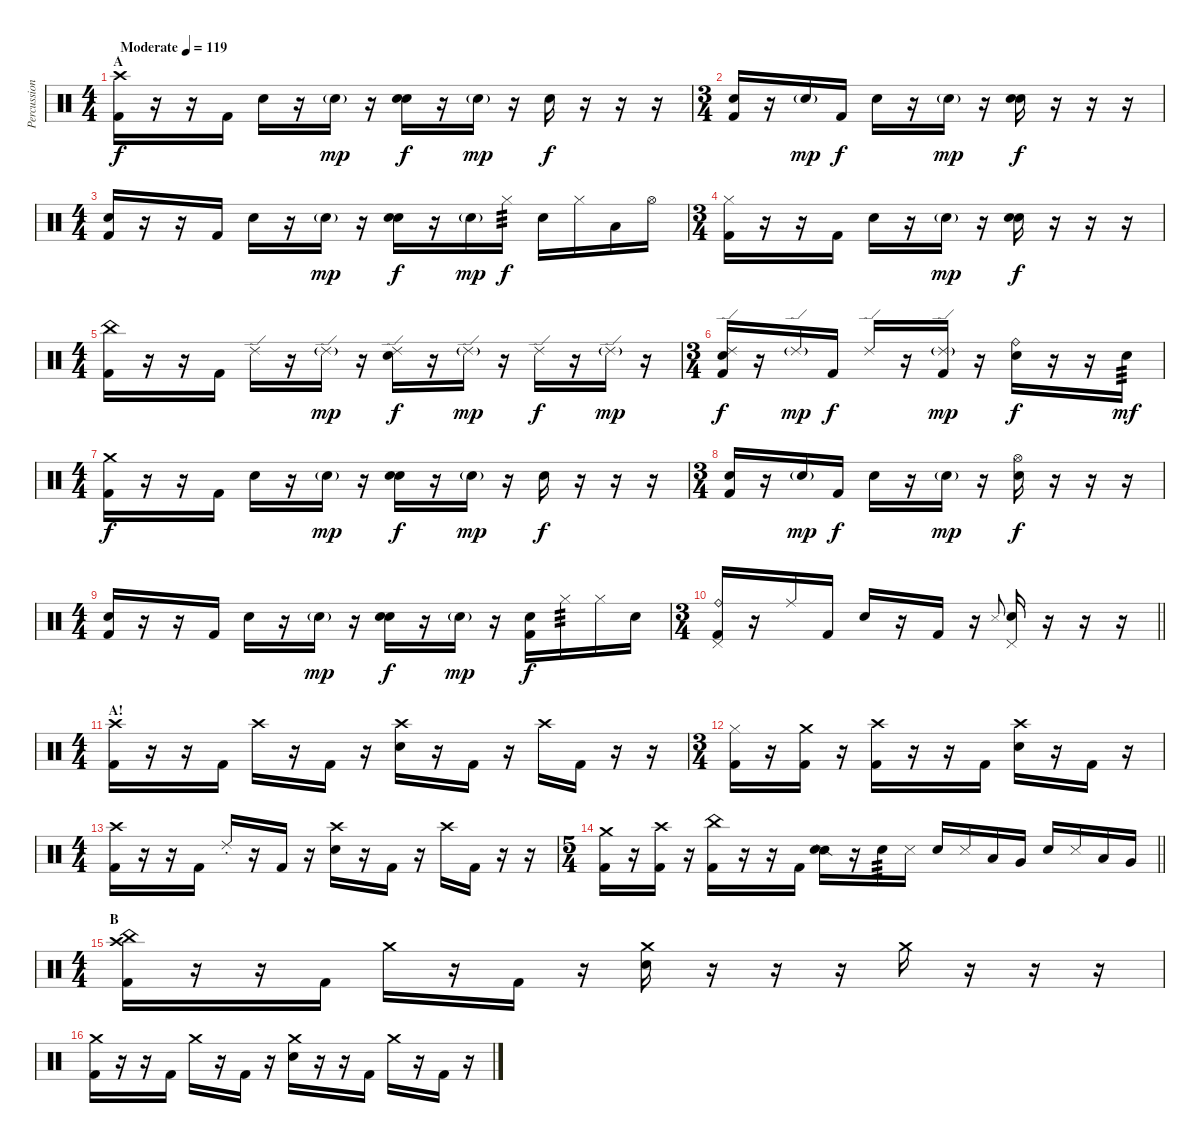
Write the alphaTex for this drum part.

\track ("Percussion" "Percussion") {instrument percussion}
\staff {score}
\articulation defaults
\ts (4 4)
\section ("" "A")
\tempo (119 "Moderate")
\clef neutral
\ks c
("Crash high (hit)" "Kick (hit) 2").16{dy f} r.16 r.16 "Kick (hit) 2".16 "Snare (hit)".16 r.16 "Snare (hit)"{g}.16{dy mp} r.16 ("Snare (hit)" "Snare (hit) 2").16{dy f} r.16 "Snare (hit)"{g}.16{dy mp} r.16 "Snare (hit)".16{dy f} r.16 r.16 r.16 |
\ts (3 4)
("Snare (hit)" "Kick (hit) 2").16 r.16 "Snare (hit)"{g}.16{dy mp} "Kick (hit) 2".16{dy f} "Snare (hit)".16 r.16 "Snare (hit)"{g}.16{dy mp} r.16 ("Snare (hit)" "Snare (hit) 2").16{dy f} r.16 r.16 r.16 |
\ts (4 4)
("Snare (hit)" "Kick (hit) 2").16 r.16 r.16 "Kick (hit) 2".16 "Snare (hit)".16 r.16 "Snare (hit)"{g}.16{dy mp} r.16 ("Snare (hit)" "Snare (hit) 2").16{dy f} r.16 "Snare (hit)"{g}.16{dy mp} "Hi-Hat (closed)".16{tp 3 dy f} "Snare (hit)".16 "Hi-Hat (closed)".16 "Low Tom (hit)".16 "Hi-Hat (open)".16 |
\ts (3 4)
("Hi-Hat (closed)" "Kick (hit) 2").16 r.16 r.16 "Kick (hit) 2".16 "Snare (hit)".16 r.16 "Snare (hit)"{g}.16{dy mp} r.16 ("Snare (hit)" "Snare (hit) 2").16{dy f} r.16 r.16 r.16 |
\ts (4 4)
("China (hit)" "Kick (hit) 2").16 r.16 r.16 "Kick (hit) 2".16 "Ride (edge) 2".16 r.16 "Ride (edge) 2"{g}.16{dy mp} r.16 ("Ride (edge) 2" "Snare (hit) 2").16{dy f} r.16 "Ride (edge) 2"{g}.16{dy mp} r.16 "Ride (edge) 2".16{dy f} r.16 "Ride (edge) 2"{g}.16{dy mp} r.16 |
\ts (3 4)
("Ride (edge) 2" "Snare (hit)" "Kick (hit) 2").16{dy f} r.16 "Ride (edge) 2"{g}.16{dy mp} "Kick (hit) 2".16{dy f} "Ride (edge) 2".16 r.16 ("Ride (edge) 2"{g} "Kick (hit) 2").16{dy mp} r.16 ("Ride (bell)" "Snare (hit) 2").16{dy f} r.16 r.16 "Snare (hit) 2".16{tp 3 dy mf} |
\ts (4 4)
("Crash medium (hit)" "Kick (hit) 2").16{dy f} r.16 r.16 "Kick (hit) 2".16 "Snare (hit)".16 r.16 "Snare (hit)"{g}.16{dy mp} r.16 ("Snare (hit)" "Snare (hit) 2").16{dy f} r.16 "Snare (hit)"{g}.16{dy mp} r.16 "Snare (hit)".16{dy f} r.16 r.16 r.16 |
\ts (3 4)
("Snare (hit)" "Kick (hit) 2").16 r.16 "Snare (hit)"{g}.16{dy mp} "Kick (hit) 2".16{dy f} "Snare (hit)".16 r.16 "Snare (hit)"{g}.16{dy mp} r.16 ("Hi-Hat (open)" "Snare (hit) 2").16{dy f} r.16 r.16 r.16 |
\ts (4 4)
("Snare (hit)" "Kick (hit) 2").16 r.16 r.16 "Kick (hit) 2".16 "Snare (hit)".16 r.16 "Snare (hit)"{g}.16{dy mp} r.16 ("Snare (hit)" "Snare (hit) 2").16{dy f} r.16 "Snare (hit)"{g}.16{dy mp} r.16 ("Snare (hit)" "Kick (hit) 2").16{dy f} "Hi-Hat (closed)".16{tp 3} "Hi-Hat (closed)".16 "Snare (hit)".16 |
\ts (3 4)
\barLineRight lightlight
("Ride (bell)" "Pedal Hi-Hat (hit)" "Kick (hit) 2").16 r.16 "Ride (middle)".16 "Kick (hit) 2".16 "Snare (hit)".16 r.16 "Kick (hit) 2".16 r.16 "Metronome (hit)".8{gr onbeat} ("Pedal Hi-Hat (hit)" "Snare (hit) 2").16 r.16 r.16 r.16 |
\ts (4 4)
\section ("" "A!")
("Crash high (hit)" "Kick (hit) 2").16 r.16 r.16 "Kick (hit) 2".16 "Crash high (hit)".16 r.16 "Kick (hit) 2".16 r.16 ("Crash high (hit)" "Snare (hit) 2").16 r.16 "Kick (hit) 2".16 r.16 "Crash high (hit)".16 "Kick (hit) 2".16 r.16 r.16 |
\ts (3 4)
("Hi-Hat (closed)" "Kick (hit) 2").16 r.16 ("Crash medium (hit)" "Kick (hit) 2").16 r.16 ("Crash high (hit)" "Kick (hit) 2").16 r.16 r.16 "Kick (hit) 2".16 ("Crash high (hit)" "Snare (hit) 2").16 r.16 "Kick (hit) 2".16 r.16 |
\ts (4 4)
("Crash high (hit)" "Kick (hit) 2").16 r.16 r.16 "Kick (hit) 2".16 "Ride (choke) 2".16 r.16 "Kick (hit) 2".16 r.16 ("Crash high (hit)" "Snare (hit) 2").16 r.16 "Kick (hit) 2".16 r.16 "Crash high (hit)".16 "Kick (hit) 2".16 r.16 r.16 |
\ts (5 4)
\barLineRight lightlight
("Crash medium (hit)" "Kick (hit) 2").16 r.16 ("Crash high (hit)" "Kick (hit) 2").16 r.16 ("China (hit)" "Kick (hit) 2").16 r.16 r.16 "Kick (hit) 2".16 ("Snare (side stick) 2" "Snare (hit) 2").16 r.16 "Snare (hit) 2".16{tp 3} "Metronome (hit)".16 "Snare (hit) 2".16 "Metronome (hit)".16 "Low Tom (hit)".16 "Very Low Tom (hit)".16 "Snare (hit) 2".16 "Metronome (hit)".16 "Low Tom (hit)".16 "Very Low Tom (hit)".16 |
\ts (4 4)
\section ("" "B")
("Crash high (hit)" "China (hit)" "Kick (hit) 2").16 r.16 r.16 "Kick (hit) 2".16 "Crash medium (hit)".16 r.16 "Kick (hit) 2".16 r.16 ("Crash medium (hit)" "Snare (hit) 2").16 r.16 r.16 r.16 "Crash medium (hit)".16 r.16 r.16 r.16 |
("Crash medium (hit)" "Kick (hit) 2").16 r.16 r.16 "Kick (hit) 2".16 "Crash medium (hit)".16 r.16 "Kick (hit) 2".16 r.16 ("Crash medium (hit)" "Snare (hit) 2").16 r.16 r.16 "Kick (hit) 2".16 "Crash medium (hit)".16 r.16 "Kick (hit) 2".16 r.16
